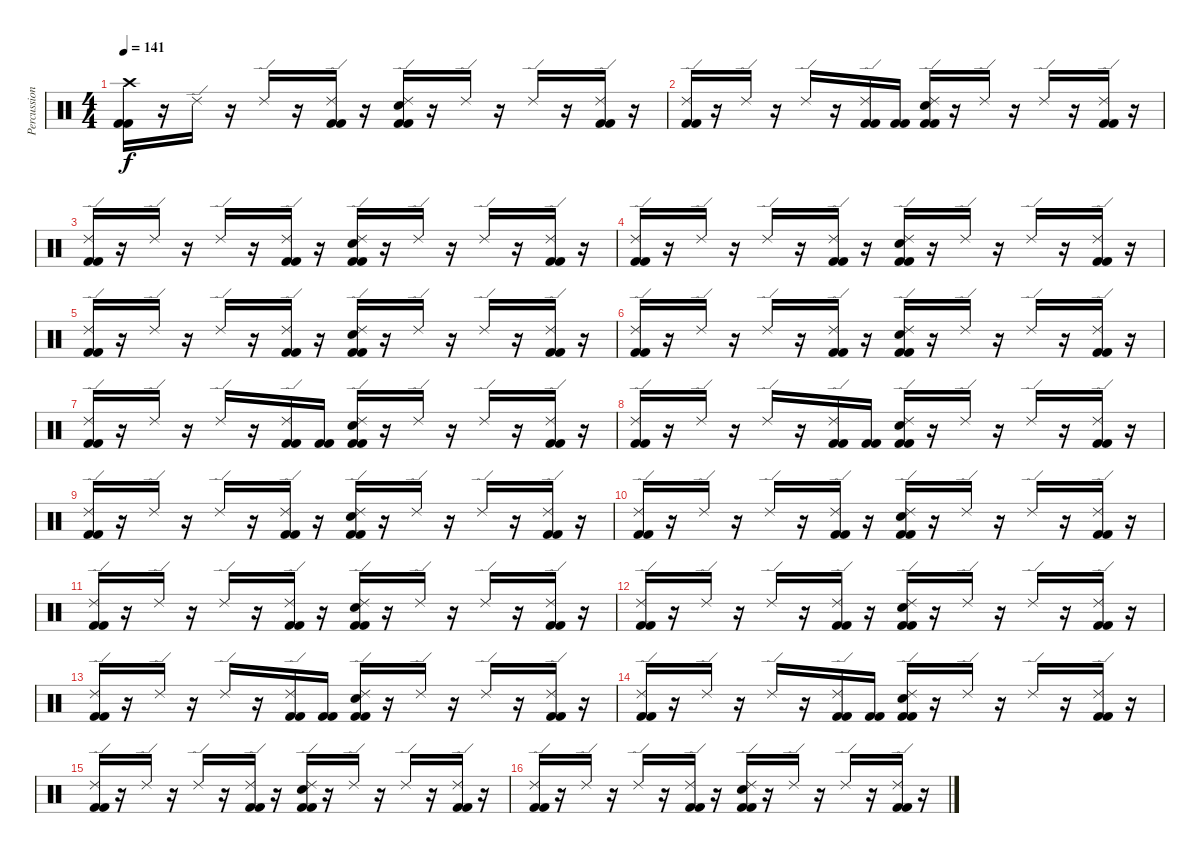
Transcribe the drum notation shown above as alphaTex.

\track ("Percussions" "Percussion") {instrument percussion}
\staff {score}
\articulation defaults
\ts (4 4)
\tempo 141
\clef neutral
\ks c
("Crash high (hit)" "Kick (hit) 2" "Kick (hit) 2").16{dy f} r.16 "Ride (edge) 2".16 r.16 "Ride (edge) 2".16 r.16 ("Ride (edge) 2" "Kick (hit) 2" "Kick (hit) 2").16 r.16 ("Ride (edge) 2" "Snare (hit) 2" "Kick (hit) 2" "Kick (hit) 2").16 r.16 "Ride (edge) 2".16 r.16 "Ride (edge) 2".16 r.16 ("Ride (edge) 2" "Kick (hit) 2" "Kick (hit) 2").16 r.16 |
("Ride (edge) 2" "Kick (hit) 2" "Kick (hit) 2").16 r.16 "Ride (edge) 2".16 r.16 "Ride (edge) 2".16 r.16 ("Ride (edge) 2" "Kick (hit) 2" "Kick (hit) 2").16 ("Kick (hit) 2" "Kick (hit) 2").16 ("Ride (edge) 2" "Snare (hit) 2" "Kick (hit) 2" "Kick (hit) 2").16 r.16 "Ride (edge) 2".16 r.16 "Ride (edge) 2".16 r.16 ("Ride (edge) 2" "Kick (hit) 2" "Kick (hit) 2").16 r.16 |
("Ride (edge) 2" "Kick (hit) 2" "Kick (hit) 2").16 r.16 "Ride (edge) 2".16 r.16 "Ride (edge) 2".16 r.16 ("Ride (edge) 2" "Kick (hit) 2" "Kick (hit) 2").16 r.16 ("Ride (edge) 2" "Snare (hit) 2" "Kick (hit) 2" "Kick (hit) 2").16 r.16 "Ride (edge) 2".16 r.16 "Ride (edge) 2".16 r.16 ("Ride (edge) 2" "Kick (hit) 2" "Kick (hit) 2").16 r.16 |
("Ride (edge) 2" "Kick (hit) 2" "Kick (hit) 2").16 r.16 "Ride (edge) 2".16 r.16 "Ride (edge) 2".16 r.16 ("Ride (edge) 2" "Kick (hit) 2" "Kick (hit) 2").16 r.16 ("Ride (edge) 2" "Snare (hit) 2" "Kick (hit) 2" "Kick (hit) 2").16 r.16 "Ride (edge) 2".16 r.16 "Ride (edge) 2".16 r.16 ("Ride (edge) 2" "Kick (hit) 2" "Kick (hit) 2").16 r.16 |
("Ride (edge) 2" "Kick (hit) 2" "Kick (hit) 2").16 r.16 "Ride (edge) 2".16 r.16 "Ride (edge) 2".16 r.16 ("Ride (edge) 2" "Kick (hit) 2" "Kick (hit) 2").16 r.16 ("Ride (edge) 2" "Snare (hit) 2" "Kick (hit) 2" "Kick (hit) 2").16 r.16 "Ride (edge) 2".16 r.16 "Ride (edge) 2".16 r.16 ("Ride (edge) 2" "Kick (hit) 2" "Kick (hit) 2").16 r.16 |
("Ride (edge) 2" "Kick (hit) 2" "Kick (hit) 2").16 r.16 "Ride (edge) 2".16 r.16 "Ride (edge) 2".16 r.16 ("Ride (edge) 2" "Kick (hit) 2" "Kick (hit) 2").16 r.16 ("Ride (edge) 2" "Snare (hit) 2" "Kick (hit) 2" "Kick (hit) 2").16 r.16 "Ride (edge) 2".16 r.16 "Ride (edge) 2".16 r.16 ("Ride (edge) 2" "Kick (hit) 2" "Kick (hit) 2").16 r.16 |
("Ride (edge) 2" "Kick (hit) 2" "Kick (hit) 2").16 r.16 "Ride (edge) 2".16 r.16 "Ride (edge) 2".16 r.16 ("Ride (edge) 2" "Kick (hit) 2" "Kick (hit) 2").16 ("Kick (hit) 2" "Kick (hit) 2").16 ("Ride (edge) 2" "Snare (hit) 2" "Kick (hit) 2" "Kick (hit) 2").16 r.16 "Ride (edge) 2".16 r.16 "Ride (edge) 2".16 r.16 ("Ride (edge) 2" "Kick (hit) 2" "Kick (hit) 2").16 r.16 |
("Ride (edge) 2" "Kick (hit) 2" "Kick (hit) 2").16 r.16 "Ride (edge) 2".16 r.16 "Ride (edge) 2".16 r.16 ("Ride (edge) 2" "Kick (hit) 2" "Kick (hit) 2").16 ("Kick (hit) 2" "Kick (hit) 2").16 ("Ride (edge) 2" "Snare (hit) 2" "Kick (hit) 2" "Kick (hit) 2").16 r.16 "Ride (edge) 2".16 r.16 "Ride (edge) 2".16 r.16 ("Ride (edge) 2" "Kick (hit) 2" "Kick (hit) 2").16 r.16 |
("Ride (edge) 2" "Kick (hit) 2" "Kick (hit) 2").16 r.16 "Ride (edge) 2".16 r.16 "Ride (edge) 2".16 r.16 ("Ride (edge) 2" "Kick (hit) 2" "Kick (hit) 2").16 r.16 ("Ride (edge) 2" "Snare (hit) 2" "Kick (hit) 2" "Kick (hit) 2").16 r.16 "Ride (edge) 2".16 r.16 "Ride (edge) 2".16 r.16 ("Ride (edge) 2" "Kick (hit) 2" "Kick (hit) 2").16 r.16 |
("Ride (edge) 2" "Kick (hit) 2" "Kick (hit) 2").16 r.16 "Ride (edge) 2".16 r.16 "Ride (edge) 2".16 r.16 ("Ride (edge) 2" "Kick (hit) 2" "Kick (hit) 2").16 r.16 ("Ride (edge) 2" "Snare (hit) 2" "Kick (hit) 2" "Kick (hit) 2").16 r.16 "Ride (edge) 2".16 r.16 "Ride (edge) 2".16 r.16 ("Ride (edge) 2" "Kick (hit) 2" "Kick (hit) 2").16 r.16 |
("Ride (edge) 2" "Kick (hit) 2" "Kick (hit) 2").16 r.16 "Ride (edge) 2".16 r.16 "Ride (edge) 2".16 r.16 ("Ride (edge) 2" "Kick (hit) 2" "Kick (hit) 2").16 r.16 ("Ride (edge) 2" "Snare (hit) 2" "Kick (hit) 2" "Kick (hit) 2").16 r.16 "Ride (edge) 2".16 r.16 "Ride (edge) 2".16 r.16 ("Ride (edge) 2" "Kick (hit) 2" "Kick (hit) 2").16 r.16 |
("Ride (edge) 2" "Kick (hit) 2" "Kick (hit) 2").16 r.16 "Ride (edge) 2".16 r.16 "Ride (edge) 2".16 r.16 ("Ride (edge) 2" "Kick (hit) 2" "Kick (hit) 2").16 r.16 ("Ride (edge) 2" "Snare (hit) 2" "Kick (hit) 2" "Kick (hit) 2").16 r.16 "Ride (edge) 2".16 r.16 "Ride (edge) 2".16 r.16 ("Ride (edge) 2" "Kick (hit) 2" "Kick (hit) 2").16 r.16 |
("Ride (edge) 2" "Kick (hit) 2" "Kick (hit) 2").16 r.16 "Ride (edge) 2".16 r.16 "Ride (edge) 2".16 r.16 ("Ride (edge) 2" "Kick (hit) 2" "Kick (hit) 2").16 ("Kick (hit) 2" "Kick (hit) 2").16 ("Ride (edge) 2" "Snare (hit) 2" "Kick (hit) 2" "Kick (hit) 2").16 r.16 "Ride (edge) 2".16 r.16 "Ride (edge) 2".16 r.16 ("Ride (edge) 2" "Kick (hit) 2" "Kick (hit) 2").16 r.16 |
("Ride (edge) 2" "Kick (hit) 2" "Kick (hit) 2").16 r.16 "Ride (edge) 2".16 r.16 "Ride (edge) 2".16 r.16 ("Ride (edge) 2" "Kick (hit) 2" "Kick (hit) 2").16 ("Kick (hit) 2" "Kick (hit) 2").16 ("Ride (edge) 2" "Snare (hit) 2" "Kick (hit) 2" "Kick (hit) 2").16 r.16 "Ride (edge) 2".16 r.16 "Ride (edge) 2".16 r.16 ("Ride (edge) 2" "Kick (hit) 2" "Kick (hit) 2").16 r.16 |
("Ride (edge) 2" "Kick (hit) 2" "Kick (hit) 2").16 r.16 "Ride (edge) 2".16 r.16 "Ride (edge) 2".16 r.16 ("Ride (edge) 2" "Kick (hit) 2" "Kick (hit) 2").16 r.16 ("Ride (edge) 2" "Snare (hit) 2" "Kick (hit) 2" "Kick (hit) 2").16 r.16 "Ride (edge) 2".16 r.16 "Ride (edge) 2".16 r.16 ("Ride (edge) 2" "Kick (hit) 2" "Kick (hit) 2").16 r.16 |
("Ride (edge) 2" "Kick (hit) 2" "Kick (hit) 2").16 r.16 "Ride (edge) 2".16 r.16 "Ride (edge) 2".16 r.16 ("Ride (edge) 2" "Kick (hit) 2" "Kick (hit) 2").16 r.16 ("Ride (edge) 2" "Snare (hit) 2" "Kick (hit) 2" "Kick (hit) 2").16 r.16 "Ride (edge) 2".16 r.16 "Ride (edge) 2".16 r.16 ("Ride (edge) 2" "Kick (hit) 2" "Kick (hit) 2").16 r.16
